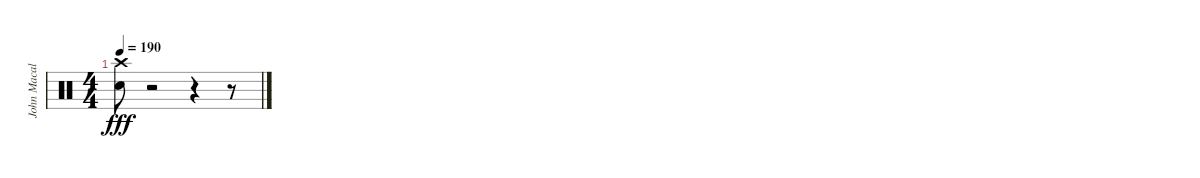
\track ("John Macaluso drums" "John Macal") {instrument percussion}
\staff {score}
\articulation defaults
\ts (4 4)
\tempo 190
\clef neutral
\ks c
("Snare (hit) 2" "Crash high (hit)").8{dy fff} r.2 r.4 r.8
